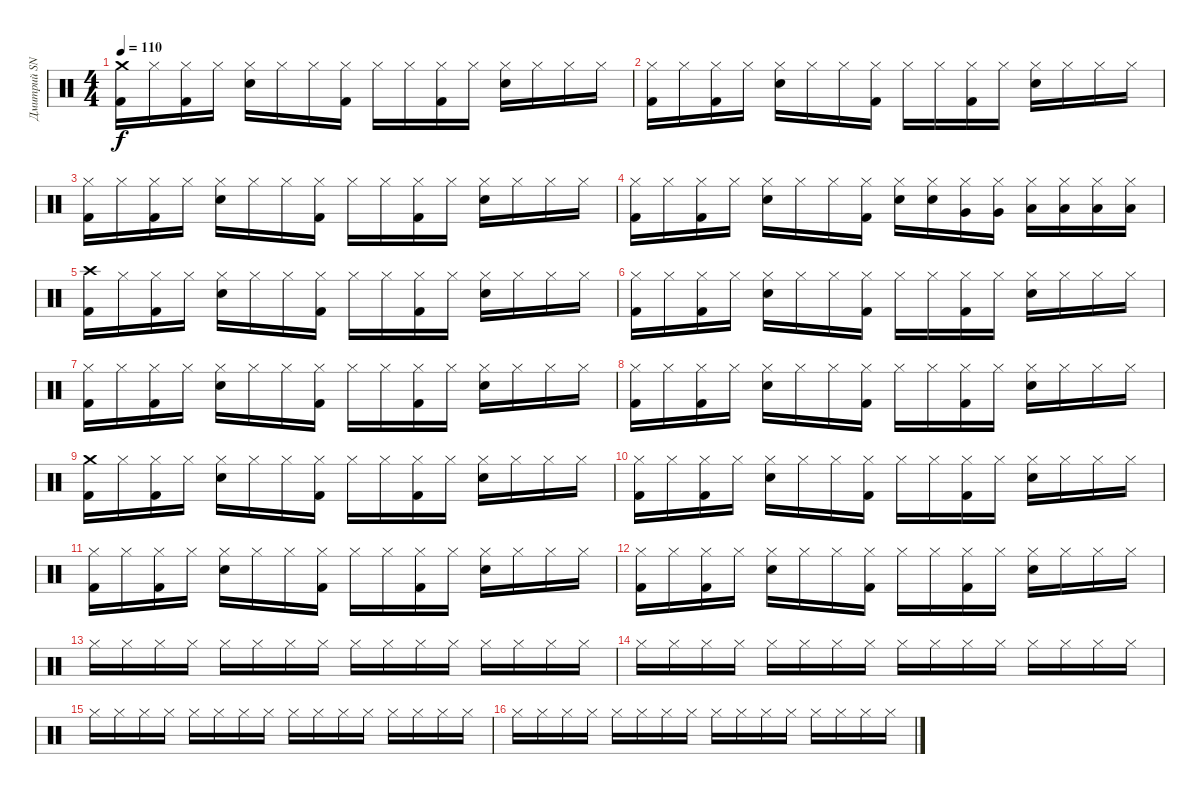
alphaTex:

\track ("Дмитрий SNAKE Хакимов" "Дмитрий SN") {instrument percussion}
\staff {score}
\articulation defaults
\ts (4 4)
\tempo 110
\clef neutral
\ks c
("Crash medium (hit)" "Kick (hit) 2").16{dy f} "Hi-Hat (closed)".16 ("Hi-Hat (closed)" "Kick (hit) 2").16 "Hi-Hat (closed)".16 ("Hi-Hat (closed)" "Snare (hit) 2").16 "Hi-Hat (closed)".16 "Hi-Hat (closed)".16 ("Hi-Hat (closed)" "Kick (hit) 2").16 "Hi-Hat (closed)".16 "Hi-Hat (closed)".16 ("Hi-Hat (closed)" "Kick (hit) 2").16 "Hi-Hat (closed)".16 ("Hi-Hat (closed)" "Snare (hit) 2").16 "Hi-Hat (closed)".16 "Hi-Hat (closed)".16 "Hi-Hat (closed)".16 |
("Hi-Hat (closed)" "Kick (hit) 2").16 "Hi-Hat (closed)".16 ("Hi-Hat (closed)" "Kick (hit) 2").16 "Hi-Hat (closed)".16 ("Hi-Hat (closed)" "Snare (hit) 2").16 "Hi-Hat (closed)".16 "Hi-Hat (closed)".16 ("Hi-Hat (closed)" "Kick (hit) 2").16 "Hi-Hat (closed)".16 "Hi-Hat (closed)".16 ("Hi-Hat (closed)" "Kick (hit) 2").16 "Hi-Hat (closed)".16 ("Hi-Hat (closed)" "Snare (hit) 2").16 "Hi-Hat (closed)".16 "Hi-Hat (closed)".16 "Hi-Hat (closed)".16 |
("Hi-Hat (closed)" "Kick (hit) 2").16 "Hi-Hat (closed)".16 ("Hi-Hat (closed)" "Kick (hit) 2").16 "Hi-Hat (closed)".16 ("Hi-Hat (closed)" "Snare (hit) 2").16 "Hi-Hat (closed)".16 "Hi-Hat (closed)".16 ("Hi-Hat (closed)" "Kick (hit) 2").16 "Hi-Hat (closed)".16 "Hi-Hat (closed)".16 ("Hi-Hat (closed)" "Kick (hit) 2").16 "Hi-Hat (closed)".16 ("Hi-Hat (closed)" "Snare (hit) 2").16 "Hi-Hat (closed)".16 "Hi-Hat (closed)".16 "Hi-Hat (closed)".16 |
("Hi-Hat (closed)" "Kick (hit) 2").16 "Hi-Hat (closed)".16 ("Hi-Hat (closed)" "Kick (hit) 2").16 "Hi-Hat (closed)".16 ("Hi-Hat (closed)" "Snare (hit) 2").16 "Hi-Hat (closed)".16 "Hi-Hat (closed)".16 ("Hi-Hat (closed)" "Kick (hit) 2").16 ("Hi-Hat (closed)" "Snare (hit) 2").16 ("Hi-Hat (closed)" "Snare (hit) 2").16 ("Hi-Hat (closed)" "Very Low Tom (hit)").16 ("Hi-Hat (closed)" "Very Low Tom (hit)").16 ("Hi-Hat (closed)" "Low Tom (hit)").16 ("Hi-Hat (closed)" "Low Tom (hit)").16 ("Hi-Hat (closed)" "Low Tom (hit)").16 ("Hi-Hat (closed)" "Low Tom (hit)").16 |
("Crash high (hit)" "Kick (hit) 2").16 "Hi-Hat (closed)".16 ("Hi-Hat (closed)" "Kick (hit) 2").16 "Hi-Hat (closed)".16 ("Hi-Hat (closed)" "Snare (hit) 2").16 "Hi-Hat (closed)".16 "Hi-Hat (closed)".16 ("Hi-Hat (closed)" "Kick (hit) 2").16 "Hi-Hat (closed)".16 "Hi-Hat (closed)".16 ("Hi-Hat (closed)" "Kick (hit) 2").16 "Hi-Hat (closed)".16 ("Hi-Hat (closed)" "Snare (hit) 2").16 "Hi-Hat (closed)".16 "Hi-Hat (closed)".16 "Hi-Hat (closed)".16 |
("Hi-Hat (closed)" "Kick (hit) 2").16 "Hi-Hat (closed)".16 ("Hi-Hat (closed)" "Kick (hit) 2").16 "Hi-Hat (closed)".16 ("Hi-Hat (closed)" "Snare (hit) 2").16 "Hi-Hat (closed)".16 "Hi-Hat (closed)".16 ("Hi-Hat (closed)" "Kick (hit) 2").16 "Hi-Hat (closed)".16 "Hi-Hat (closed)".16 ("Hi-Hat (closed)" "Kick (hit) 2").16 "Hi-Hat (closed)".16 ("Hi-Hat (closed)" "Snare (hit) 2").16 "Hi-Hat (closed)".16 "Hi-Hat (closed)".16 "Hi-Hat (closed)".16 |
("Hi-Hat (closed)" "Kick (hit) 2").16 "Hi-Hat (closed)".16 ("Hi-Hat (closed)" "Kick (hit) 2").16 "Hi-Hat (closed)".16 ("Hi-Hat (closed)" "Snare (hit) 2").16 "Hi-Hat (closed)".16 "Hi-Hat (closed)".16 ("Hi-Hat (closed)" "Kick (hit) 2").16 "Hi-Hat (closed)".16 "Hi-Hat (closed)".16 ("Hi-Hat (closed)" "Kick (hit) 2").16 "Hi-Hat (closed)".16 ("Hi-Hat (closed)" "Snare (hit) 2").16 "Hi-Hat (closed)".16 "Hi-Hat (closed)".16 "Hi-Hat (closed)".16 |
("Hi-Hat (closed)" "Kick (hit) 2").16 "Hi-Hat (closed)".16 ("Hi-Hat (closed)" "Kick (hit) 2").16 "Hi-Hat (closed)".16 ("Hi-Hat (closed)" "Snare (hit) 2").16 "Hi-Hat (closed)".16 "Hi-Hat (closed)".16 ("Hi-Hat (closed)" "Kick (hit) 2").16 "Hi-Hat (closed)".16 "Hi-Hat (closed)".16 ("Hi-Hat (closed)" "Kick (hit) 2").16 "Hi-Hat (closed)".16 ("Hi-Hat (closed)" "Snare (hit) 2").16 "Hi-Hat (closed)".16 "Hi-Hat (closed)".16 "Hi-Hat (closed)".16 |
("Crash medium (hit)" "Kick (hit) 2").16 "Hi-Hat (closed)".16 ("Hi-Hat (closed)" "Kick (hit) 2").16 "Hi-Hat (closed)".16 ("Hi-Hat (closed)" "Snare (hit) 2").16 "Hi-Hat (closed)".16 "Hi-Hat (closed)".16 ("Hi-Hat (closed)" "Kick (hit) 2").16 "Hi-Hat (closed)".16 "Hi-Hat (closed)".16 ("Hi-Hat (closed)" "Kick (hit) 2").16 "Hi-Hat (closed)".16 ("Hi-Hat (closed)" "Snare (hit) 2").16 "Hi-Hat (closed)".16 "Hi-Hat (closed)".16 "Hi-Hat (closed)".16 |
("Hi-Hat (closed)" "Kick (hit) 2").16 "Hi-Hat (closed)".16 ("Hi-Hat (closed)" "Kick (hit) 2").16 "Hi-Hat (closed)".16 ("Hi-Hat (closed)" "Snare (hit) 2").16 "Hi-Hat (closed)".16 "Hi-Hat (closed)".16 ("Hi-Hat (closed)" "Kick (hit) 2").16 "Hi-Hat (closed)".16 "Hi-Hat (closed)".16 ("Hi-Hat (closed)" "Kick (hit) 2").16 "Hi-Hat (closed)".16 ("Hi-Hat (closed)" "Snare (hit) 2").16 "Hi-Hat (closed)".16 "Hi-Hat (closed)".16 "Hi-Hat (closed)".16 |
("Hi-Hat (closed)" "Kick (hit) 2").16 "Hi-Hat (closed)".16 ("Hi-Hat (closed)" "Kick (hit) 2").16 "Hi-Hat (closed)".16 ("Hi-Hat (closed)" "Snare (hit) 2").16 "Hi-Hat (closed)".16 "Hi-Hat (closed)".16 ("Hi-Hat (closed)" "Kick (hit) 2").16 "Hi-Hat (closed)".16 "Hi-Hat (closed)".16 ("Hi-Hat (closed)" "Kick (hit) 2").16 "Hi-Hat (closed)".16 ("Hi-Hat (closed)" "Snare (hit) 2").16 "Hi-Hat (closed)".16 "Hi-Hat (closed)".16 "Hi-Hat (closed)".16 |
("Hi-Hat (closed)" "Kick (hit) 2").16 "Hi-Hat (closed)".16 ("Hi-Hat (closed)" "Kick (hit) 2").16 "Hi-Hat (closed)".16 ("Hi-Hat (closed)" "Snare (hit) 2").16 "Hi-Hat (closed)".16 "Hi-Hat (closed)".16 ("Hi-Hat (closed)" "Kick (hit) 2").16 "Hi-Hat (closed)".16 "Hi-Hat (closed)".16 ("Hi-Hat (closed)" "Kick (hit) 2").16 "Hi-Hat (closed)".16 ("Hi-Hat (closed)" "Snare (hit) 2").16 "Hi-Hat (closed)".16 "Hi-Hat (closed)".16 "Hi-Hat (closed)".16 |
"Hi-Hat (closed)".16 "Hi-Hat (closed)".16 "Hi-Hat (closed)".16 "Hi-Hat (closed)".16 "Hi-Hat (closed)".16 "Hi-Hat (closed)".16 "Hi-Hat (closed)".16 "Hi-Hat (closed)".16 "Hi-Hat (closed)".16 "Hi-Hat (closed)".16 "Hi-Hat (closed)".16 "Hi-Hat (closed)".16 "Hi-Hat (closed)".16 "Hi-Hat (closed)".16 "Hi-Hat (closed)".16 "Hi-Hat (closed)".16 |
"Hi-Hat (closed)".16 "Hi-Hat (closed)".16 "Hi-Hat (closed)".16 "Hi-Hat (closed)".16 "Hi-Hat (closed)".16 "Hi-Hat (closed)".16 "Hi-Hat (closed)".16 "Hi-Hat (closed)".16 "Hi-Hat (closed)".16 "Hi-Hat (closed)".16 "Hi-Hat (closed)".16 "Hi-Hat (closed)".16 "Hi-Hat (closed)".16 "Hi-Hat (closed)".16 "Hi-Hat (closed)".16 "Hi-Hat (closed)".16 |
"Hi-Hat (closed)".16 "Hi-Hat (closed)".16 "Hi-Hat (closed)".16 "Hi-Hat (closed)".16 "Hi-Hat (closed)".16 "Hi-Hat (closed)".16 "Hi-Hat (closed)".16 "Hi-Hat (closed)".16 "Hi-Hat (closed)".16 "Hi-Hat (closed)".16 "Hi-Hat (closed)".16 "Hi-Hat (closed)".16 "Hi-Hat (closed)".16 "Hi-Hat (closed)".16 "Hi-Hat (closed)".16 "Hi-Hat (closed)".16 |
"Hi-Hat (closed)".16 "Hi-Hat (closed)".16 "Hi-Hat (closed)".16 "Hi-Hat (closed)".16 "Hi-Hat (closed)".16 "Hi-Hat (closed)".16 "Hi-Hat (closed)".16 "Hi-Hat (closed)".16 "Hi-Hat (closed)".16 "Hi-Hat (closed)".16 "Hi-Hat (closed)".16 "Hi-Hat (closed)".16 "Hi-Hat (closed)".16 "Hi-Hat (closed)".16 "Hi-Hat (closed)".16 "Hi-Hat (closed)".16
